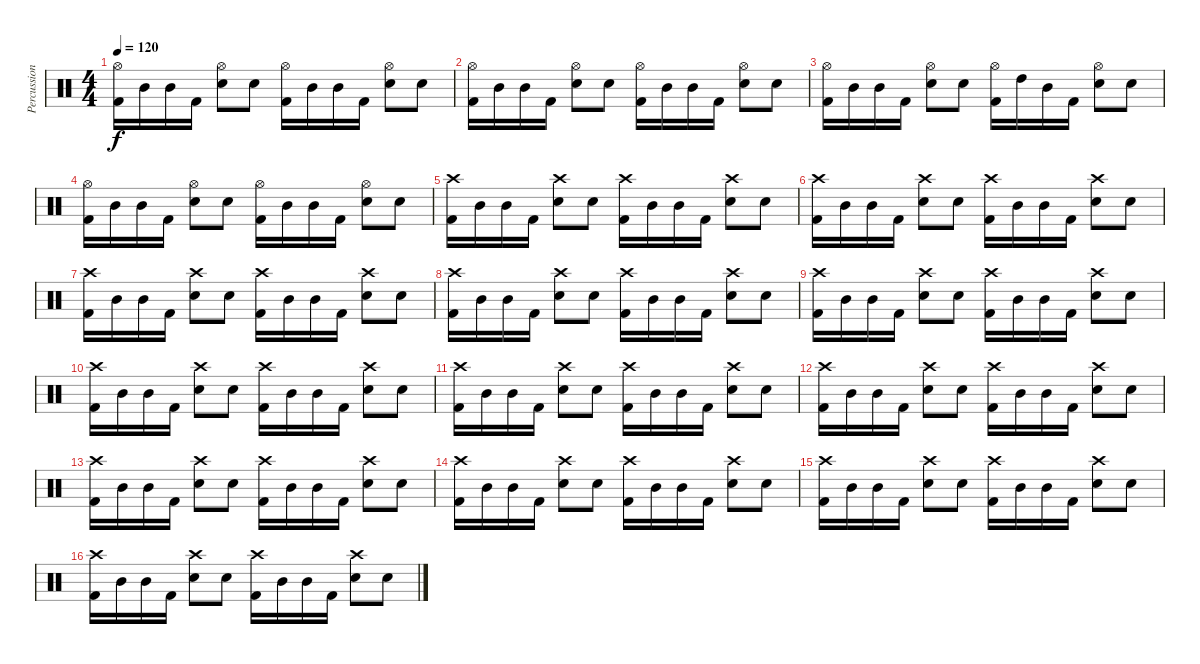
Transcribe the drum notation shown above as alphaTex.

\track ("Percussions" "Percussion") {instrument percussion}
\staff {score}
\articulation defaults
\ts (4 4)
\tempo 120
\clef neutral
\ks c
("Kick (hit) 2" "Hi-Hat (open)").16{dy f} "Mid Tom (hit)".16 "Mid Tom (hit)".16 "Kick (hit) 2".16 ("Electric Snare (hit)" "Hi-Hat (open)").8 "Electric Snare (hit)".8 ("Kick (hit) 2" "Hi-Hat (open)").16 "Mid Tom (hit)".16 "Mid Tom (hit)".16 "Kick (hit) 2".16 ("Electric Snare (hit)" "Hi-Hat (open)").8 "Electric Snare (hit)".8 |
("Kick (hit) 2" "Hi-Hat (open)").16 "Mid Tom (hit)".16 "Mid Tom (hit)".16 "Kick (hit) 2".16 ("Electric Snare (hit)" "Hi-Hat (open)").8 "Electric Snare (hit)".8 ("Kick (hit) 2" "Hi-Hat (open)").16 "Mid Tom (hit)".16 "Mid Tom (hit)".16 "Kick (hit) 2".16 ("Electric Snare (hit)" "Hi-Hat (open)").8 "Electric Snare (hit)".8 |
("Kick (hit) 2" "Hi-Hat (open)").16 "Mid Tom (hit)".16 "Mid Tom (hit)".16 "Kick (hit) 2".16 ("Electric Snare (hit)" "Hi-Hat (open)").8 "Electric Snare (hit)".8 ("Kick (hit) 2" "Hi-Hat (open)").16 "High Tom (hit)".16 "Mid Tom (hit)".16 "Kick (hit) 2".16 ("Electric Snare (hit)" "Hi-Hat (open)").8 "Electric Snare (hit)".8 |
("Kick (hit) 2" "Hi-Hat (open)").16 "Mid Tom (hit)".16 "Mid Tom (hit)".16 "Kick (hit) 2".16 ("Electric Snare (hit)" "Hi-Hat (open)").8 "Electric Snare (hit)".8 ("Kick (hit) 2" "Hi-Hat (open)").16 "Mid Tom (hit)".16 "Mid Tom (hit)".16 "Kick (hit) 2".16 ("Electric Snare (hit)" "Hi-Hat (open)").8 "Electric Snare (hit)".8 |
("Kick (hit) 2" "Crash high (hit)").16 "Mid Tom (hit)".16 "Mid Tom (hit)".16 "Kick (hit) 2".16 ("Electric Snare (hit)" "Crash high (hit)").8 "Electric Snare (hit)".8 ("Kick (hit) 2" "Crash high (hit)").16 "Mid Tom (hit)".16 "Mid Tom (hit)".16 "Kick (hit) 2".16 ("Electric Snare (hit)" "Crash high (hit)").8 "Electric Snare (hit)".8 |
("Kick (hit) 2" "Crash high (hit)").16 "Mid Tom (hit)".16 "Mid Tom (hit)".16 "Kick (hit) 2".16 ("Electric Snare (hit)" "Crash high (hit)").8 "Electric Snare (hit)".8 ("Kick (hit) 2" "Crash high (hit)").16 "Mid Tom (hit)".16 "Mid Tom (hit)".16 "Kick (hit) 2".16 ("Electric Snare (hit)" "Crash high (hit)").8 "Electric Snare (hit)".8 |
("Kick (hit) 2" "Crash high (hit)").16 "Mid Tom (hit)".16 "Mid Tom (hit)".16 "Kick (hit) 2".16 ("Electric Snare (hit)" "Crash high (hit)").8 "Electric Snare (hit)".8 ("Kick (hit) 2" "Crash high (hit)").16 "Mid Tom (hit)".16 "Mid Tom (hit)".16 "Kick (hit) 2".16 ("Electric Snare (hit)" "Crash high (hit)").8 "Electric Snare (hit)".8 |
("Kick (hit) 2" "Crash high (hit)").16 "Mid Tom (hit)".16 "Mid Tom (hit)".16 "Kick (hit) 2".16 ("Electric Snare (hit)" "Crash high (hit)").8 "Electric Snare (hit)".8 ("Kick (hit) 2" "Crash high (hit)").16 "Mid Tom (hit)".16 "Mid Tom (hit)".16 "Kick (hit) 2".16 ("Electric Snare (hit)" "Crash high (hit)").8 "Electric Snare (hit)".8 |
("Kick (hit) 2" "Crash high (hit)").16 "Mid Tom (hit)".16 "Mid Tom (hit)".16 "Kick (hit) 2".16 ("Electric Snare (hit)" "Crash high (hit)").8 "Electric Snare (hit)".8 ("Kick (hit) 2" "Crash high (hit)").16 "Mid Tom (hit)".16 "Mid Tom (hit)".16 "Kick (hit) 2".16 ("Electric Snare (hit)" "Crash high (hit)").8 "Electric Snare (hit)".8 |
("Kick (hit) 2" "Crash high (hit)").16 "Mid Tom (hit)".16 "Mid Tom (hit)".16 "Kick (hit) 2".16 ("Electric Snare (hit)" "Crash high (hit)").8 "Electric Snare (hit)".8 ("Kick (hit) 2" "Crash high (hit)").16 "Mid Tom (hit)".16 "Mid Tom (hit)".16 "Kick (hit) 2".16 ("Electric Snare (hit)" "Crash high (hit)").8 "Electric Snare (hit)".8 |
("Kick (hit) 2" "Crash high (hit)").16 "Mid Tom (hit)".16 "Mid Tom (hit)".16 "Kick (hit) 2".16 ("Electric Snare (hit)" "Crash high (hit)").8 "Electric Snare (hit)".8 ("Kick (hit) 2" "Crash high (hit)").16 "Mid Tom (hit)".16 "Mid Tom (hit)".16 "Kick (hit) 2".16 ("Electric Snare (hit)" "Crash high (hit)").8 "Electric Snare (hit)".8 |
("Kick (hit) 2" "Crash high (hit)").16 "Mid Tom (hit)".16 "Mid Tom (hit)".16 "Kick (hit) 2".16 ("Electric Snare (hit)" "Crash high (hit)").8 "Electric Snare (hit)".8 ("Kick (hit) 2" "Crash high (hit)").16 "Mid Tom (hit)".16 "Mid Tom (hit)".16 "Kick (hit) 2".16 ("Electric Snare (hit)" "Crash high (hit)").8 "Electric Snare (hit)".8 |
("Kick (hit) 2" "Crash high (hit)").16 "Mid Tom (hit)".16 "Mid Tom (hit)".16 "Kick (hit) 2".16 ("Electric Snare (hit)" "Crash high (hit)").8 "Electric Snare (hit)".8 ("Kick (hit) 2" "Crash high (hit)").16 "Mid Tom (hit)".16 "Mid Tom (hit)".16 "Kick (hit) 2".16 ("Electric Snare (hit)" "Crash high (hit)").8 "Electric Snare (hit)".8 |
("Kick (hit) 2" "Crash high (hit)").16 "Mid Tom (hit)".16 "Mid Tom (hit)".16 "Kick (hit) 2".16 ("Electric Snare (hit)" "Crash high (hit)").8 "Electric Snare (hit)".8 ("Kick (hit) 2" "Crash high (hit)").16 "Mid Tom (hit)".16 "Mid Tom (hit)".16 "Kick (hit) 2".16 ("Electric Snare (hit)" "Crash high (hit)").8 "Electric Snare (hit)".8 |
("Kick (hit) 2" "Crash high (hit)").16 "Mid Tom (hit)".16 "Mid Tom (hit)".16 "Kick (hit) 2".16 ("Electric Snare (hit)" "Crash high (hit)").8 "Electric Snare (hit)".8 ("Kick (hit) 2" "Crash high (hit)").16 "Mid Tom (hit)".16 "Mid Tom (hit)".16 "Kick (hit) 2".16 ("Electric Snare (hit)" "Crash high (hit)").8 "Electric Snare (hit)".8 |
("Kick (hit) 2" "Crash high (hit)").16 "Mid Tom (hit)".16 "Mid Tom (hit)".16 "Kick (hit) 2".16 ("Electric Snare (hit)" "Crash high (hit)").8 "Electric Snare (hit)".8 ("Kick (hit) 2" "Crash high (hit)").16 "Mid Tom (hit)".16 "Mid Tom (hit)".16 "Kick (hit) 2".16 ("Electric Snare (hit)" "Crash high (hit)").8 "Electric Snare (hit)".8
